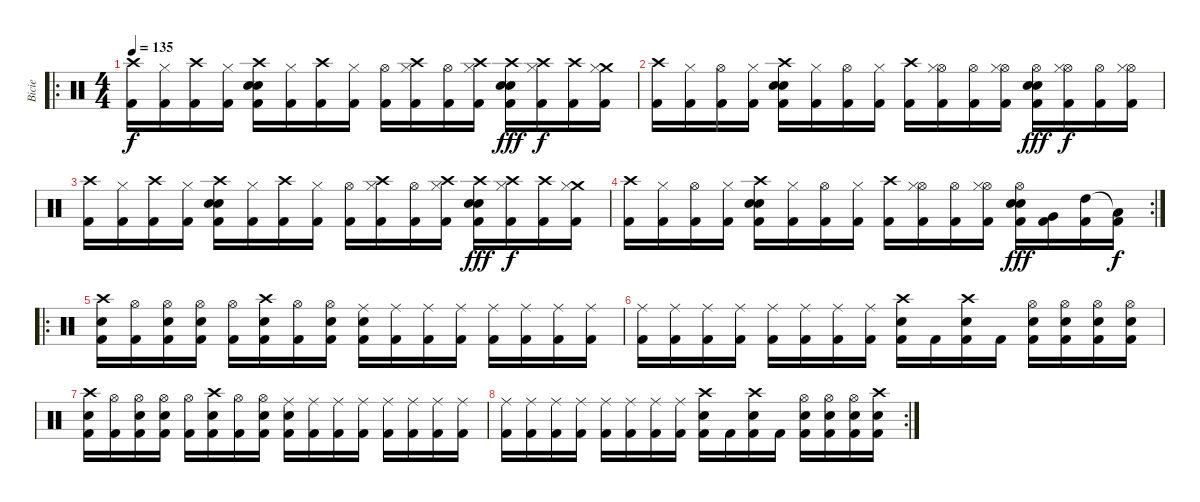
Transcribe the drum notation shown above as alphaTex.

\track ("Bicie" "Bicie") {instrument percussion}
\staff {score}
\articulation defaults
\ro
\ts (4 4)
\tempo 135
\clef neutral
\ks c
("Crash high (hit)" "Kick (hit) 2").16{dy f volume 16} ("Hi-Hat (closed)" "Kick (hit) 2").16 ("Crash high (hit)" "Kick (hit) 2").16 ("Hi-Hat (closed)" "Kick (hit) 2").16 ("Crash high (hit)" "Electric Snare (hit)" "Electric Snare (hit)" "Kick (hit) 2").16 ("Hi-Hat (closed)" "Kick (hit) 2").16 ("Crash high (hit)" "Kick (hit) 2").16 ("Hi-Hat (closed)" "Kick (hit) 2").16 ("Hi-Hat (open)" "Kick (hit) 2").16 ("Crash high (hit)" "Hi-Hat (closed)" "Kick (hit) 2").16 ("Hi-Hat (open)" "Kick (hit) 2").16 ("Crash high (hit)" "Hi-Hat (closed)" "Kick (hit) 2").16 ("Crash high (hit)" "Electric Snare (hit)" "Electric Snare (hit)" "Kick (hit) 2").16{dy fff} ("Crash high (hit)" "Hi-Hat (closed)" "Kick (hit) 2").16{dy f} ("Crash high (hit)" "Kick (hit) 2").16 ("Crash medium (hit)" "Hi-Hat (closed)" "Kick (hit) 2").16 |
("Crash high (hit)" "Kick (hit) 2").16 ("Hi-Hat (closed)" "Kick (hit) 2").16 ("Hi-Hat (open)" "Kick (hit) 2").16 ("Hi-Hat (closed)" "Kick (hit) 2").16 ("Crash high (hit)" "Electric Snare (hit)" "Electric Snare (hit)" "Kick (hit) 2").16 ("Hi-Hat (closed)" "Kick (hit) 2").16 ("Hi-Hat (open)" "Kick (hit) 2").16 ("Hi-Hat (closed)" "Kick (hit) 2").16 ("Crash high (hit)" "Kick (hit) 2").16 ("Hi-Hat (open)" "Hi-Hat (closed)" "Kick (hit) 2").16 ("Hi-Hat (open)" "Kick (hit) 2").16 ("Hi-Hat (open)" "Hi-Hat (closed)" "Kick (hit) 2").16 ("Hi-Hat (open)" "Electric Snare (hit)" "Electric Snare (hit)" "Kick (hit) 2").16{dy fff} ("Hi-Hat (open)" "Hi-Hat (closed)" "Kick (hit) 2").16{dy f} ("Hi-Hat (open)" "Kick (hit) 2").16 ("Hi-Hat (open)" "Hi-Hat (closed)" "Kick (hit) 2").16 |
("Crash high (hit)" "Kick (hit) 2").16 ("Hi-Hat (closed)" "Kick (hit) 2").16 ("Crash high (hit)" "Kick (hit) 2").16 ("Hi-Hat (closed)" "Kick (hit) 2").16 ("Crash high (hit)" "Electric Snare (hit)" "Electric Snare (hit)" "Kick (hit) 2").16 ("Hi-Hat (closed)" "Kick (hit) 2").16 ("Crash high (hit)" "Kick (hit) 2").16 ("Hi-Hat (closed)" "Kick (hit) 2").16 ("Hi-Hat (open)" "Kick (hit) 2").16 ("Crash high (hit)" "Hi-Hat (closed)" "Kick (hit) 2").16 ("Hi-Hat (open)" "Kick (hit) 2").16 ("Crash high (hit)" "Hi-Hat (closed)" "Kick (hit) 2").16 ("Crash high (hit)" "Electric Snare (hit)" "Electric Snare (hit)" "Kick (hit) 2").16{dy fff} ("Crash high (hit)" "Hi-Hat (closed)" "Kick (hit) 2").16{dy f} ("Crash high (hit)" "Kick (hit) 2").16 ("Crash medium (hit)" "Hi-Hat (closed)" "Kick (hit) 2").16 |
\rc 2
("Crash high (hit)" "Kick (hit) 2").16 ("Hi-Hat (closed)" "Kick (hit) 2").16 ("Hi-Hat (open)" "Kick (hit) 2").16 ("Hi-Hat (closed)" "Kick (hit) 2").16 ("Crash high (hit)" "Electric Snare (hit)" "Electric Snare (hit)" "Kick (hit) 2").16 ("Hi-Hat (closed)" "Kick (hit) 2").16 ("Hi-Hat (open)" "Kick (hit) 2").16 ("Hi-Hat (closed)" "Kick (hit) 2").16 ("Crash high (hit)" "Kick (hit) 2").16 ("Hi-Hat (open)" "Hi-Hat (closed)" "Kick (hit) 2").16 ("Hi-Hat (open)" "Kick (hit) 2").16 ("Hi-Hat (open)" "Hi-Hat (closed)" "Kick (hit) 2").16 ("Hi-Hat (open)" "Electric Snare (hit)" "Electric Snare (hit)" "Kick (hit) 2").16{dy fff} ("Very Low Tom (hit)" "Kick (hit) 2").16 ("High Tom (hit)" "Kick (hit) 2").16 ("Low Tom (hit)"{t} "Kick (hit) 2").16{dy f} |
\ro
("Crash high (hit)" "Electric Snare (hit)" "Kick (hit) 2").16 ("Hi-Hat (open)" "Kick (hit) 2").16 ("Hi-Hat (open)" "Electric Snare (hit)" "Kick (hit) 2").16 ("Hi-Hat (open)" "Electric Snare (hit)" "Kick (hit) 2").16 ("Hi-Hat (open)" "Kick (hit) 2").16 ("Crash high (hit)" "Electric Snare (hit)" "Kick (hit) 2").16 ("Hi-Hat (open)" "Kick (hit) 2").16 ("Hi-Hat (open)" "Electric Snare (hit)" "Kick (hit) 2").16 ("Ride (middle)"{x} "Electric Snare (hit)" "Kick (hit) 2").16 ("Ride (middle)"{x} "Kick (hit) 2").16 ("Ride (middle)"{x} "Kick (hit) 2").16 ("Ride (middle)"{x} "Kick (hit) 2").16 ("Ride (middle)"{x} "Kick (hit) 2").16 ("Ride (middle)"{x} "Kick (hit) 2").16 ("Ride (middle)"{x} "Kick (hit) 2").16 ("Ride (middle)"{x} "Kick (hit) 2").16 |
("Ride (middle)"{x} "Kick (hit) 2").16 ("Ride (middle)"{x} "Kick (hit) 2").16 ("Ride (middle)"{x} "Kick (hit) 2").16 ("Ride (middle)"{x} "Kick (hit) 2").16 ("Ride (middle)"{x} "Kick (hit) 2").16 ("Ride (middle)"{x} "Kick (hit) 2").16 ("Ride (middle)"{x} "Kick (hit) 2").16 ("Ride (middle)"{x} "Kick (hit) 2").16 ("Crash high (hit)" "Electric Snare (hit)" "Kick (hit) 2").16 "Kick (hit) 2".16 ("Crash high (hit)" "Electric Snare (hit)" "Kick (hit) 2").16 "Kick (hit) 2".16 ("Hi-Hat (open)" "Electric Snare (hit)" "Kick (hit) 2").16 ("Hi-Hat (open)" "Electric Snare (hit)" "Kick (hit) 2").16 ("Hi-Hat (open)" "Electric Snare (hit)" "Kick (hit) 2").16 ("Hi-Hat (open)" "Electric Snare (hit)" "Kick (hit) 2").16 |
("Crash high (hit)" "Electric Snare (hit)" "Kick (hit) 2").16 ("Hi-Hat (open)" "Kick (hit) 2").16 ("Hi-Hat (open)" "Electric Snare (hit)" "Kick (hit) 2").16 ("Hi-Hat (open)" "Electric Snare (hit)" "Kick (hit) 2").16 ("Hi-Hat (open)" "Kick (hit) 2").16 ("Crash high (hit)" "Electric Snare (hit)" "Kick (hit) 2").16 ("Hi-Hat (open)" "Kick (hit) 2").16 ("Hi-Hat (open)" "Electric Snare (hit)" "Kick (hit) 2").16 ("Ride (middle)"{x} "Electric Snare (hit)" "Kick (hit) 2").16 ("Ride (middle)"{x} "Kick (hit) 2").16 ("Ride (middle)"{x} "Kick (hit) 2").16 ("Ride (middle)"{x} "Kick (hit) 2").16 ("Ride (middle)"{x} "Kick (hit) 2").16 ("Ride (middle)"{x} "Kick (hit) 2").16 ("Ride (middle)"{x} "Kick (hit) 2").16 ("Ride (middle)"{x} "Kick (hit) 2").16 |
\rc 2
("Ride (middle)"{x} "Kick (hit) 2").16 ("Ride (middle)"{x} "Kick (hit) 2").16 ("Ride (middle)"{x} "Kick (hit) 2").16 ("Ride (middle)"{x} "Kick (hit) 2").16 ("Ride (middle)"{x} "Kick (hit) 2").16 ("Ride (middle)"{x} "Kick (hit) 2").16 ("Ride (middle)"{x} "Kick (hit) 2").16 ("Ride (middle)"{x} "Kick (hit) 2").16 ("Crash high (hit)" "Electric Snare (hit)" "Kick (hit) 2").16 "Kick (hit) 2".16 ("Crash high (hit)" "Electric Snare (hit)" "Kick (hit) 2").16 "Kick (hit) 2".16 ("Hi-Hat (open)" "Electric Snare (hit)" "Kick (hit) 2").16 ("Hi-Hat (open)" "Electric Snare (hit)" "Kick (hit) 2").16 ("Hi-Hat (open)" "Electric Snare (hit)" "Kick (hit) 2").16 ("Crash high (hit)" "Electric Snare (hit)" "Kick (hit) 2").16
